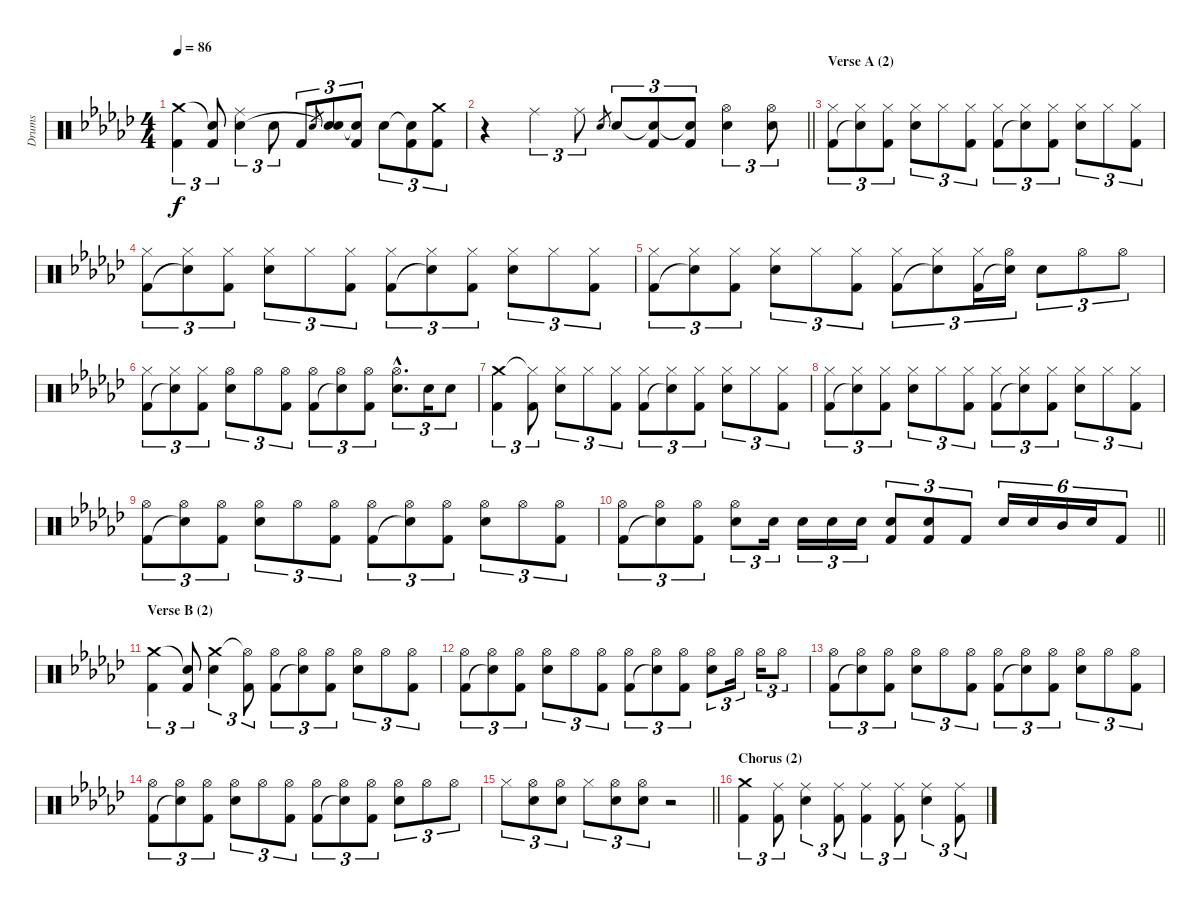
\track ("Drums" "Drums") {instrument percussion}
\staff {score}
\articulation defaults
\ts (4 4)
\tempo 86
\clef neutral
\ks ebminor
("Crash medium (hit)" "Kick (hit) 2").4{tu (3 2) dy f} ("Snare (hit)"{t} "Kick (hit) 2").8{tu (3 2)} ("Ride (middle)" "Electric Snare (hit)").4{tu (3 2)} "Electric Snare (hit)".8{tu (3 2)} "Kick (hit) 2".8{tu (3 2)} "Electric Snare (hit)".8{gr} ("Electric Snare (hit)" "Snare (hit)"{t}).8{tu (3 2)} ("Snare (hit)"{t} "Kick (hit) 2").8{tu (3 2)} "Electric Snare (hit)".8{tu (3 2)} ("Snare (hit)"{t} "Kick (hit) 2").8{tu (3 2)} ("Crash medium (hit)" "Kick (hit) 2").8{tu (3 2)} |
\barLineRight lightlight
r.4 "Ride (middle)".4{tu (3 2)} "Ride (middle)".8{tu (3 2)} "Electric Snare (hit)".8{gr} "Electric Snare (hit)".8{tu (3 2)} ("Snare (hit)"{t} "Kick (hit) 2").8{tu (3 2)} ("Snare (hit)"{t} "Kick (hit) 2").8{tu (3 2)} ("Hi-Hat (open)" "Electric Snare (hit)").4{tu (3 2)} ("Hi-Hat (open)" "Electric Snare (hit)").8{tu (3 2)} |
\section ("" "Verse A (2)")
("Hi-Hat (closed)" "Kick (hit) 2").8{tu (3 2)} ("Hi-Hat (closed)" "Snare (hit)"{t}).8{tu (3 2)} ("Hi-Hat (closed)" "Kick (hit) 2").8{tu (3 2)} ("Hi-Hat (closed)" "Electric Snare (hit)").8{tu (3 2)} "Hi-Hat (closed)".8{tu (3 2)} ("Hi-Hat (closed)" "Kick (hit) 2").8{tu (3 2)} ("Hi-Hat (closed)" "Kick (hit) 2").8{tu (3 2)} ("Hi-Hat (closed)" "Snare (hit)"{t}).8{tu (3 2)} ("Hi-Hat (closed)" "Kick (hit) 2").8{tu (3 2)} ("Hi-Hat (closed)" "Electric Snare (hit)").8{tu (3 2)} "Hi-Hat (closed)".8{tu (3 2)} ("Hi-Hat (closed)" "Kick (hit) 2").8{tu (3 2)} |
("Hi-Hat (closed)" "Kick (hit) 2").8{tu (3 2)} ("Hi-Hat (closed)" "Snare (hit)"{t}).8{tu (3 2)} ("Hi-Hat (closed)" "Kick (hit) 2").8{tu (3 2)} ("Hi-Hat (closed)" "Electric Snare (hit)").8{tu (3 2)} "Hi-Hat (closed)".8{tu (3 2)} ("Hi-Hat (closed)" "Kick (hit) 2").8{tu (3 2)} ("Hi-Hat (closed)" "Kick (hit) 2").8{tu (3 2)} ("Hi-Hat (closed)" "Snare (hit)"{t}).8{tu (3 2)} ("Hi-Hat (closed)" "Kick (hit) 2").8{tu (3 2)} ("Hi-Hat (closed)" "Electric Snare (hit)").8{tu (3 2)} "Hi-Hat (closed)".8{tu (3 2)} ("Hi-Hat (closed)" "Kick (hit) 2").8{tu (3 2)} |
("Hi-Hat (closed)" "Kick (hit) 2").8{tu (3 2)} ("Hi-Hat (closed)" "Snare (hit)"{t}).8{tu (3 2)} ("Hi-Hat (closed)" "Kick (hit) 2").8{tu (3 2)} ("Hi-Hat (closed)" "Electric Snare (hit)").8{tu (3 2)} "Hi-Hat (closed)".8{tu (3 2)} ("Hi-Hat (closed)" "Kick (hit) 2").8{tu (3 2)} ("Hi-Hat (closed)" "Kick (hit) 2").8{tu (3 2)} ("Hi-Hat (closed)" "Snare (hit)"{t}).8{tu (3 2)} ("Hi-Hat (closed)" "Kick (hit) 2").16{tu (3 2)} ("Hi-Hat (open)" "Snare (hit)"{t}).16{tu (3 2)} "Electric Snare (hit)".8{tu (3 2)} "Hi-Hat (open)".8{tu (3 2)} "Hi-Hat (open)".8{tu (3 2)} |
("Hi-Hat (closed)" "Kick (hit) 2").8{tu (3 2)} ("Hi-Hat (closed)" "Snare (hit)"{t}).8{tu (3 2)} ("Hi-Hat (closed)" "Kick (hit) 2").8{tu (3 2)} ("Hi-Hat (open)" "Electric Snare (hit)").8{tu (3 2)} "Hi-Hat (open)".8{tu (3 2)} ("Hi-Hat (open)" "Kick (hit) 2").8{tu (3 2)} ("Hi-Hat (open)" "Kick (hit) 2").8{tu (3 2)} ("Hi-Hat (open)" "Snare (hit)"{t}).8{tu (3 2)} ("Hi-Hat (open)" "Kick (hit) 2").8{tu (3 2)} ("Hi-Hat (open)"{hac} "Electric Snare (hit)"{hac}).8{d tu (3 2)} "Electric Snare (hit)".16{tu (3 2)} "Electric Snare (hit)".8{tu (3 2)} |
("Crash medium (hit)" "Kick (hit) 2").4{tu (3 2)} ("Hi-Hat (closed)"{t} "Kick (hit) 2").8{tu (3 2)} ("Hi-Hat (closed)" "Electric Snare (hit)").8{tu (3 2)} "Hi-Hat (closed)".8{tu (3 2)} ("Hi-Hat (closed)" "Kick (hit) 2").8{tu (3 2)} ("Hi-Hat (closed)" "Kick (hit) 2").8{tu (3 2)} ("Hi-Hat (closed)" "Snare (hit)"{t}).8{tu (3 2)} ("Hi-Hat (closed)" "Kick (hit) 2").8{tu (3 2)} ("Hi-Hat (closed)" "Electric Snare (hit)").8{tu (3 2)} "Hi-Hat (closed)".8{tu (3 2)} ("Hi-Hat (closed)" "Kick (hit) 2").8{tu (3 2)} |
("Hi-Hat (closed)" "Kick (hit) 2").8{tu (3 2)} ("Hi-Hat (closed)" "Snare (hit)"{t}).8{tu (3 2)} ("Hi-Hat (closed)" "Kick (hit) 2").8{tu (3 2)} ("Hi-Hat (closed)" "Electric Snare (hit)").8{tu (3 2)} "Hi-Hat (closed)".8{tu (3 2)} ("Hi-Hat (closed)" "Kick (hit) 2").8{tu (3 2)} ("Hi-Hat (closed)" "Kick (hit) 2").8{tu (3 2)} ("Hi-Hat (closed)" "Snare (hit)"{t}).8{tu (3 2)} ("Hi-Hat (closed)" "Kick (hit) 2").8{tu (3 2)} ("Hi-Hat (closed)" "Electric Snare (hit)").8{tu (3 2)} "Hi-Hat (closed)".8{tu (3 2)} ("Hi-Hat (closed)" "Kick (hit) 2").8{tu (3 2)} |
("Hi-Hat (open)" "Kick (hit) 2").8{tu (3 2)} ("Hi-Hat (open)" "Snare (hit)"{t}).8{tu (3 2)} ("Hi-Hat (open)" "Kick (hit) 2").8{tu (3 2)} ("Hi-Hat (open)" "Electric Snare (hit)").8{tu (3 2)} "Hi-Hat (open)".8{tu (3 2)} ("Hi-Hat (open)" "Kick (hit) 2").8{tu (3 2)} ("Hi-Hat (open)" "Kick (hit) 2").8{tu (3 2)} ("Hi-Hat (open)" "Snare (hit)"{t}).8{tu (3 2)} ("Hi-Hat (open)" "Kick (hit) 2").8{tu (3 2)} ("Hi-Hat (open)" "Electric Snare (hit)").8{tu (3 2)} "Hi-Hat (open)".8{tu (3 2)} ("Hi-Hat (open)" "Kick (hit) 2").8{tu (3 2)} |
\barLineRight lightlight
("Hi-Hat (open)" "Kick (hit) 2").8{tu (3 2)} ("Hi-Hat (open)" "Snare (hit)"{t}).8{tu (3 2)} ("Hi-Hat (open)" "Kick (hit) 2").8{tu (3 2)} ("Hi-Hat (open)" "Electric Snare (hit)").8{tu (3 2)} "Electric Snare (hit)".16{tu (3 2)} "Electric Snare (hit)".16{tu (3 2)} "Electric Snare (hit)".16{tu (3 2)} "Electric Snare (hit)".16{tu (3 2)} ("Electric Snare (hit)" "Kick (hit) 2").8{tu (3 2)} ("Electric Snare (hit)" "Kick (hit) 2").8{tu (3 2)} "Kick (hit) 2".8{tu (3 2)} "Electric Snare (hit)".16{tu (6 4)} "Electric Snare (hit)".16{tu (6 4)} "Mid Tom (hit)".16{tu (6 4)} "Electric Snare (hit)".16{tu (6 4)} "Kick (hit) 2".8{tu (6 4)} |
\section ("" "Verse B (2)")
("Crash medium (hit)" "Kick (hit) 2").4{tu (3 2)} ("Snare (hit)"{t} "Kick (hit) 2").8{tu (3 2)} ("Crash medium (hit)" "Electric Snare (hit)").4{tu (3 2)} ("Hi-Hat (open)"{t} "Kick (hit) 2").8{tu (3 2)} ("Hi-Hat (open)" "Kick (hit) 2").8{tu (3 2)} ("Hi-Hat (open)" "Snare (hit)"{t}).8{tu (3 2)} ("Hi-Hat (open)" "Kick (hit) 2").8{tu (3 2)} ("Hi-Hat (open)" "Electric Snare (hit)").8{tu (3 2)} "Hi-Hat (open)".8{tu (3 2)} ("Hi-Hat (open)" "Kick (hit) 2").8{tu (3 2)} |
("Hi-Hat (open)" "Kick (hit) 2").8{tu (3 2)} ("Hi-Hat (open)" "Snare (hit)"{t}).8{tu (3 2)} ("Hi-Hat (open)" "Kick (hit) 2").8{tu (3 2)} ("Hi-Hat (open)" "Electric Snare (hit)").8{tu (3 2)} "Hi-Hat (open)".8{tu (3 2)} ("Hi-Hat (open)" "Kick (hit) 2").8{tu (3 2)} ("Hi-Hat (open)" "Kick (hit) 2").8{tu (3 2)} ("Hi-Hat (open)" "Snare (hit)"{t}).8{tu (3 2)} ("Hi-Hat (open)" "Kick (hit) 2").8{tu (3 2)} ("Hi-Hat (open)" "Electric Snare (hit)").8{tu (3 2)} "Hi-Hat (open)".16{tu (3 2)} "Hi-Hat (open)".16{tu (3 2)} "Hi-Hat (open)".8{tu (3 2)} |
("Hi-Hat (open)" "Kick (hit) 2").8{tu (3 2)} ("Hi-Hat (open)" "Snare (hit)"{t}).8{tu (3 2)} ("Hi-Hat (open)" "Kick (hit) 2").8{tu (3 2)} ("Hi-Hat (open)" "Electric Snare (hit)").8{tu (3 2)} "Hi-Hat (open)".8{tu (3 2)} ("Hi-Hat (open)" "Kick (hit) 2").8{tu (3 2)} ("Hi-Hat (open)" "Kick (hit) 2").8{tu (3 2)} ("Hi-Hat (open)" "Snare (hit)"{t}).8{tu (3 2)} ("Hi-Hat (open)" "Kick (hit) 2").8{tu (3 2)} ("Hi-Hat (open)" "Electric Snare (hit)").8{tu (3 2)} "Hi-Hat (open)".8{tu (3 2)} ("Hi-Hat (open)" "Kick (hit) 2").8{tu (3 2)} |
("Hi-Hat (open)" "Kick (hit) 2").8{tu (3 2)} ("Hi-Hat (open)" "Snare (hit)"{t}).8{tu (3 2)} ("Hi-Hat (open)" "Kick (hit) 2").8{tu (3 2)} ("Hi-Hat (open)" "Electric Snare (hit)").8{tu (3 2)} "Hi-Hat (open)".8{tu (3 2)} ("Hi-Hat (open)" "Kick (hit) 2").8{tu (3 2)} ("Hi-Hat (open)" "Kick (hit) 2").8{tu (3 2)} ("Hi-Hat (open)" "Snare (hit)"{t}).8{tu (3 2)} ("Hi-Hat (open)" "Kick (hit) 2").8{tu (3 2)} ("Hi-Hat (open)" "Electric Snare (hit)").8{tu (3 2)} "Hi-Hat (open)".8{tu (3 2)} "Hi-Hat (open)".8{tu (3 2)} |
\barLineRight lightlight "Hi-Hat (closed)".8{tu (3 2)}
("Hi-Hat (open)" "Electric Snare (hit)").8{tu (3 2)} ("Hi-Hat (open)" "Electric Snare (hit)").8{tu (3 2)} "Hi-Hat (closed)".8{tu (3 2)} ("Hi-Hat (open)" "Electric Snare (hit)").8{tu (3 2)} ("Hi-Hat (open)" "Electric Snare (hit)").8{tu (3 2)} r.2 |
\section ("" "Chorus (2)")
("Crash medium (hit)" "Kick (hit) 2").4{tu (3 2)} ("Ride (middle)" "Kick (hit) 2").8{tu (3 2)} ("Ride (middle)" "Electric Snare (hit)").4{tu (3 2)} ("Ride (middle)" "Kick (hit) 2").8{tu (3 2)} ("Ride (middle)" "Kick (hit) 2").4{tu (3 2)} ("Ride (middle)" "Kick (hit) 2").8{tu (3 2)} ("Ride (middle)" "Electric Snare (hit)").4{tu (3 2)} ("Ride (middle)" "Kick (hit) 2").8{tu (3 2)}
